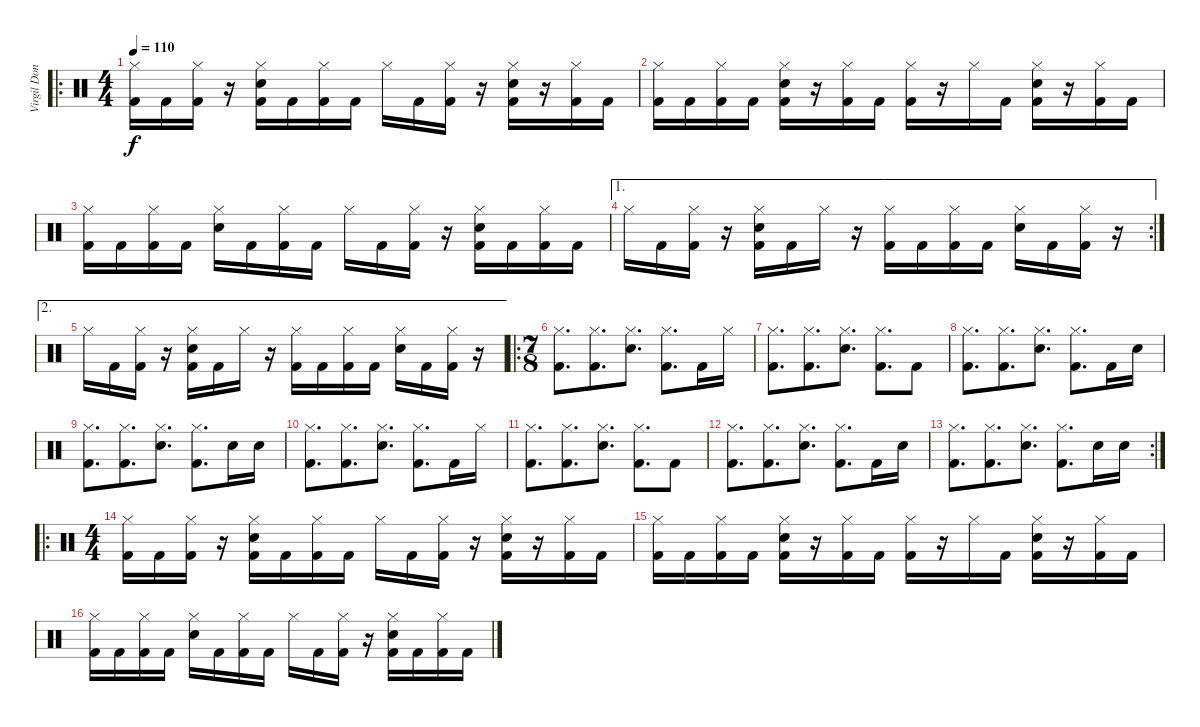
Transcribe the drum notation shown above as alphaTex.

\track ("Virgil Donati" "Virgil Don") {instrument percussion}
\staff {score}
\articulation defaults
\ro
\ts (4 4)
\tempo 110
\clef neutral
\ks c
("Hi-Hat (closed)" "Kick (hit) 2").16{dy f} "Kick (hit) 2".16 ("Hi-Hat (closed)" "Kick (hit) 2").16 r.16 ("Hi-Hat (closed)" "Snare (hit) 2" "Kick (hit) 2").16 "Kick (hit) 2".16 ("Hi-Hat (closed)" "Kick (hit) 2").16 "Kick (hit) 2".16 "Hi-Hat (closed)".16 "Kick (hit) 2".16 ("Hi-Hat (closed)" "Kick (hit) 2").16 r.16 ("Hi-Hat (closed)" "Snare (hit) 2" "Kick (hit) 2").16 r.16 ("Hi-Hat (closed)" "Kick (hit) 2").16 "Kick (hit) 2".16 |
("Hi-Hat (closed)" "Kick (hit) 2").16 "Kick (hit) 2".16 ("Hi-Hat (closed)" "Kick (hit) 2").16 "Kick (hit) 2".16 ("Hi-Hat (closed)" "Snare (hit) 2" "Kick (hit) 2").16 r.16 ("Hi-Hat (closed)" "Kick (hit) 2").16 "Kick (hit) 2".16 ("Hi-Hat (closed)" "Kick (hit) 2").16 r.16 "Hi-Hat (closed)".16 "Kick (hit) 2".16 ("Hi-Hat (closed)" "Snare (hit) 2" "Kick (hit) 2").16 r.16 ("Hi-Hat (closed)" "Kick (hit) 2").16 "Kick (hit) 2".16 |
("Hi-Hat (closed)" "Kick (hit) 2").16 "Kick (hit) 2".16 ("Hi-Hat (closed)" "Kick (hit) 2").16 "Kick (hit) 2".16 ("Hi-Hat (closed)" "Snare (hit) 2").16 "Kick (hit) 2".16 ("Hi-Hat (closed)" "Kick (hit) 2").16 "Kick (hit) 2".16 "Hi-Hat (closed)".16 "Kick (hit) 2".16 ("Hi-Hat (closed)" "Kick (hit) 2").16 r.16 ("Hi-Hat (closed)" "Snare (hit) 2" "Kick (hit) 2").16 "Kick (hit) 2".16 ("Hi-Hat (closed)" "Kick (hit) 2").16 "Kick (hit) 2".16 |
\ae 1
\rc 2 "Hi-Hat (closed)".16 "Kick (hit) 2".16
("Hi-Hat (closed)" "Kick (hit) 2").16 r.16 ("Hi-Hat (closed)" "Snare (hit) 2" "Kick (hit) 2").16 "Kick (hit) 2".16 "Hi-Hat (closed)".16 r.16 ("Hi-Hat (closed)" "Kick (hit) 2").16 "Kick (hit) 2".16 ("Hi-Hat (closed)" "Kick (hit) 2").16 "Kick (hit) 2".16 ("Hi-Hat (closed)" "Snare (hit) 2").16 "Kick (hit) 2".16 ("Hi-Hat (closed)" "Kick (hit) 2").16 r.16 |
\ae 2 "Hi-Hat (closed)".16 "Kick (hit) 2".16
("Hi-Hat (closed)" "Kick (hit) 2").16 r.16 ("Hi-Hat (closed)" "Snare (hit) 2" "Kick (hit) 2").16 "Kick (hit) 2".16 "Hi-Hat (closed)".16 r.16 ("Hi-Hat (closed)" "Kick (hit) 2").16 "Kick (hit) 2".16 ("Hi-Hat (closed)" "Kick (hit) 2").16 "Kick (hit) 2".16 ("Hi-Hat (closed)" "Snare (hit) 2").16 "Kick (hit) 2".16 ("Hi-Hat (closed)" "Kick (hit) 2").16 r.16 |
\ro
\ts (7 8)
("Hi-Hat (closed)" "Kick (hit) 2").8{d} ("Hi-Hat (closed)" "Kick (hit) 2").8{d} ("Hi-Hat (closed)" "Snare (hit) 2").8{d} ("Hi-Hat (closed)" "Kick (hit) 2").8{d} "Kick (hit) 2".16 "Hi-Hat (closed)".16 |
("Hi-Hat (closed)" "Kick (hit) 2").8{d} ("Hi-Hat (closed)" "Kick (hit) 2").8{d} ("Hi-Hat (closed)" "Snare (hit) 2").8{d} ("Hi-Hat (closed)" "Kick (hit) 2").8{d} "Kick (hit) 2".8 |
("Hi-Hat (closed)" "Kick (hit) 2").8{d} ("Hi-Hat (closed)" "Kick (hit) 2").8{d} ("Hi-Hat (closed)" "Snare (hit) 2").8{d} ("Hi-Hat (closed)" "Kick (hit) 2").8{d} "Kick (hit) 2".16 "Snare (hit) 2".16 |
("Hi-Hat (closed)" "Kick (hit) 2").8{d} ("Hi-Hat (closed)" "Kick (hit) 2").8{d} ("Hi-Hat (closed)" "Snare (hit) 2").8{d} ("Hi-Hat (closed)" "Kick (hit) 2").8{d} "Snare (hit) 2".16 "Snare (hit) 2".16 |
("Hi-Hat (closed)" "Kick (hit) 2").8{d} ("Hi-Hat (closed)" "Kick (hit) 2").8{d} ("Hi-Hat (closed)" "Snare (hit) 2").8{d} ("Hi-Hat (closed)" "Kick (hit) 2").8{d} "Kick (hit) 2".16 "Hi-Hat (closed)".16 |
("Hi-Hat (closed)" "Kick (hit) 2").8{d} ("Hi-Hat (closed)" "Kick (hit) 2").8{d} ("Hi-Hat (closed)" "Snare (hit) 2").8{d} ("Hi-Hat (closed)" "Kick (hit) 2").8{d} "Kick (hit) 2".8 |
("Hi-Hat (closed)" "Kick (hit) 2").8{d} ("Hi-Hat (closed)" "Kick (hit) 2").8{d} ("Hi-Hat (closed)" "Snare (hit) 2").8{d} ("Hi-Hat (closed)" "Kick (hit) 2").8{d} "Kick (hit) 2".16 "Snare (hit) 2".16 |
\rc 2
("Hi-Hat (closed)" "Kick (hit) 2").8{d} ("Hi-Hat (closed)" "Kick (hit) 2").8{d} ("Hi-Hat (closed)" "Snare (hit) 2").8{d} ("Hi-Hat (closed)" "Kick (hit) 2").8{d} "Snare (hit) 2".16 "Snare (hit) 2".16 |
\ro
\ts (4 4)
("Hi-Hat (closed)" "Kick (hit) 2").16 "Kick (hit) 2".16 ("Hi-Hat (closed)" "Kick (hit) 2").16 r.16 ("Hi-Hat (closed)" "Snare (hit) 2" "Kick (hit) 2").16 "Kick (hit) 2".16 ("Hi-Hat (closed)" "Kick (hit) 2").16 "Kick (hit) 2".16 "Hi-Hat (closed)".16 "Kick (hit) 2".16 ("Hi-Hat (closed)" "Kick (hit) 2").16 r.16 ("Hi-Hat (closed)" "Snare (hit) 2" "Kick (hit) 2").16 r.16 ("Hi-Hat (closed)" "Kick (hit) 2").16 "Kick (hit) 2".16 |
("Hi-Hat (closed)" "Kick (hit) 2").16 "Kick (hit) 2".16 ("Hi-Hat (closed)" "Kick (hit) 2").16 "Kick (hit) 2".16 ("Hi-Hat (closed)" "Snare (hit) 2" "Kick (hit) 2").16 r.16 ("Hi-Hat (closed)" "Kick (hit) 2").16 "Kick (hit) 2".16 ("Hi-Hat (closed)" "Kick (hit) 2").16 r.16 "Hi-Hat (closed)".16 "Kick (hit) 2".16 ("Hi-Hat (closed)" "Snare (hit) 2" "Kick (hit) 2").16 r.16 ("Hi-Hat (closed)" "Kick (hit) 2").16 "Kick (hit) 2".16 |
("Hi-Hat (closed)" "Kick (hit) 2").16 "Kick (hit) 2".16 ("Hi-Hat (closed)" "Kick (hit) 2").16 "Kick (hit) 2".16 ("Hi-Hat (closed)" "Snare (hit) 2").16 "Kick (hit) 2".16 ("Hi-Hat (closed)" "Kick (hit) 2").16 "Kick (hit) 2".16 "Hi-Hat (closed)".16 "Kick (hit) 2".16 ("Hi-Hat (closed)" "Kick (hit) 2").16 r.16 ("Hi-Hat (closed)" "Snare (hit) 2" "Kick (hit) 2").16 "Kick (hit) 2".16 ("Hi-Hat (closed)" "Kick (hit) 2").16 "Kick (hit) 2".16
